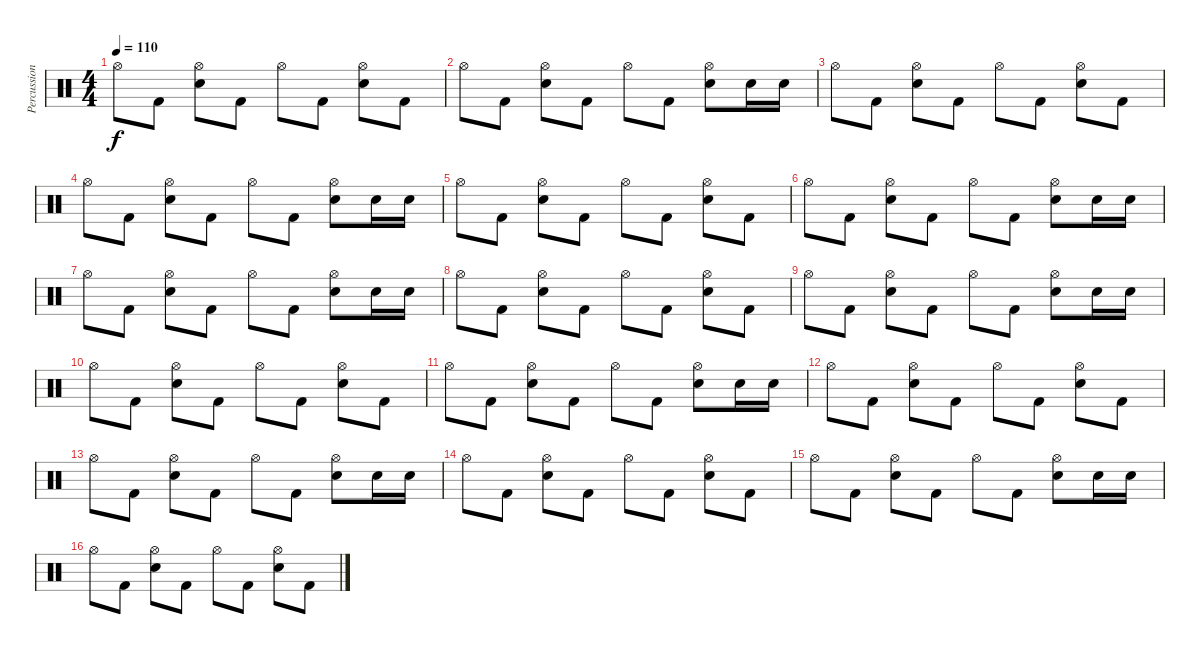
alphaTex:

\track ("Percussion" "Percussion") {instrument percussion}
\staff {score}
\articulation defaults
\ts (4 4)
\tempo 110
\clef neutral
\ks c "Hi-Hat (open)".8{dy f} "Kick (hit) 2".8
("Electric Snare (hit)" "Hi-Hat (open)").8 "Kick (hit) 2".8 "Hi-Hat (open)".8 "Kick (hit) 2".8 ("Electric Snare (hit)" "Hi-Hat (open)").8 "Kick (hit) 2".8 |
"Hi-Hat (open)".8 "Kick (hit) 2".8 ("Electric Snare (hit)" "Hi-Hat (open)").8 "Kick (hit) 2".8 "Hi-Hat (open)".8 "Kick (hit) 2".8 ("Electric Snare (hit)" "Hi-Hat (open)").8 "Electric Snare (hit)".16 "Electric Snare (hit)".16 |
"Hi-Hat (open)".8 "Kick (hit) 2".8 ("Electric Snare (hit)" "Hi-Hat (open)").8 "Kick (hit) 2".8 "Hi-Hat (open)".8 "Kick (hit) 2".8 ("Electric Snare (hit)" "Hi-Hat (open)").8 "Kick (hit) 2".8 |
"Hi-Hat (open)".8 "Kick (hit) 2".8 ("Electric Snare (hit)" "Hi-Hat (open)").8 "Kick (hit) 2".8 "Hi-Hat (open)".8 "Kick (hit) 2".8 ("Electric Snare (hit)" "Hi-Hat (open)").8 "Electric Snare (hit)".16 "Electric Snare (hit)".16 |
"Hi-Hat (open)".8 "Kick (hit) 2".8 ("Electric Snare (hit)" "Hi-Hat (open)").8 "Kick (hit) 2".8 "Hi-Hat (open)".8 "Kick (hit) 2".8 ("Electric Snare (hit)" "Hi-Hat (open)").8 "Kick (hit) 2".8 |
"Hi-Hat (open)".8 "Kick (hit) 2".8 ("Electric Snare (hit)" "Hi-Hat (open)").8 "Kick (hit) 2".8 "Hi-Hat (open)".8 "Kick (hit) 2".8 ("Electric Snare (hit)" "Hi-Hat (open)").8 "Electric Snare (hit)".16 "Electric Snare (hit)".16 |
"Hi-Hat (open)".8 "Kick (hit) 2".8 ("Electric Snare (hit)" "Hi-Hat (open)").8 "Kick (hit) 2".8 "Hi-Hat (open)".8 "Kick (hit) 2".8 ("Electric Snare (hit)" "Hi-Hat (open)").8 "Electric Snare (hit)".16 "Electric Snare (hit)".16 |
"Hi-Hat (open)".8 "Kick (hit) 2".8 ("Electric Snare (hit)" "Hi-Hat (open)").8 "Kick (hit) 2".8 "Hi-Hat (open)".8 "Kick (hit) 2".8 ("Electric Snare (hit)" "Hi-Hat (open)").8 "Kick (hit) 2".8 |
"Hi-Hat (open)".8 "Kick (hit) 2".8 ("Electric Snare (hit)" "Hi-Hat (open)").8 "Kick (hit) 2".8 "Hi-Hat (open)".8 "Kick (hit) 2".8 ("Electric Snare (hit)" "Hi-Hat (open)").8 "Electric Snare (hit)".16 "Electric Snare (hit)".16 |
"Hi-Hat (open)".8 "Kick (hit) 2".8 ("Electric Snare (hit)" "Hi-Hat (open)").8 "Kick (hit) 2".8 "Hi-Hat (open)".8 "Kick (hit) 2".8 ("Electric Snare (hit)" "Hi-Hat (open)").8 "Kick (hit) 2".8 |
"Hi-Hat (open)".8 "Kick (hit) 2".8 ("Electric Snare (hit)" "Hi-Hat (open)").8 "Kick (hit) 2".8 "Hi-Hat (open)".8 "Kick (hit) 2".8 ("Electric Snare (hit)" "Hi-Hat (open)").8 "Electric Snare (hit)".16 "Electric Snare (hit)".16 |
"Hi-Hat (open)".8 "Kick (hit) 2".8 ("Electric Snare (hit)" "Hi-Hat (open)").8 "Kick (hit) 2".8 "Hi-Hat (open)".8 "Kick (hit) 2".8 ("Electric Snare (hit)" "Hi-Hat (open)").8 "Kick (hit) 2".8 |
"Hi-Hat (open)".8 "Kick (hit) 2".8 ("Electric Snare (hit)" "Hi-Hat (open)").8 "Kick (hit) 2".8 "Hi-Hat (open)".8 "Kick (hit) 2".8 ("Electric Snare (hit)" "Hi-Hat (open)").8 "Electric Snare (hit)".16 "Electric Snare (hit)".16 |
"Hi-Hat (open)".8 "Kick (hit) 2".8 ("Electric Snare (hit)" "Hi-Hat (open)").8 "Kick (hit) 2".8 "Hi-Hat (open)".8 "Kick (hit) 2".8 ("Electric Snare (hit)" "Hi-Hat (open)").8 "Kick (hit) 2".8 |
"Hi-Hat (open)".8 "Kick (hit) 2".8 ("Electric Snare (hit)" "Hi-Hat (open)").8 "Kick (hit) 2".8 "Hi-Hat (open)".8 "Kick (hit) 2".8 ("Electric Snare (hit)" "Hi-Hat (open)").8 "Electric Snare (hit)".16 "Electric Snare (hit)".16 |
"Hi-Hat (open)".8 "Kick (hit) 2".8 ("Electric Snare (hit)" "Hi-Hat (open)").8 "Kick (hit) 2".8 "Hi-Hat (open)".8 "Kick (hit) 2".8 ("Electric Snare (hit)" "Hi-Hat (open)").8 "Kick (hit) 2".8
